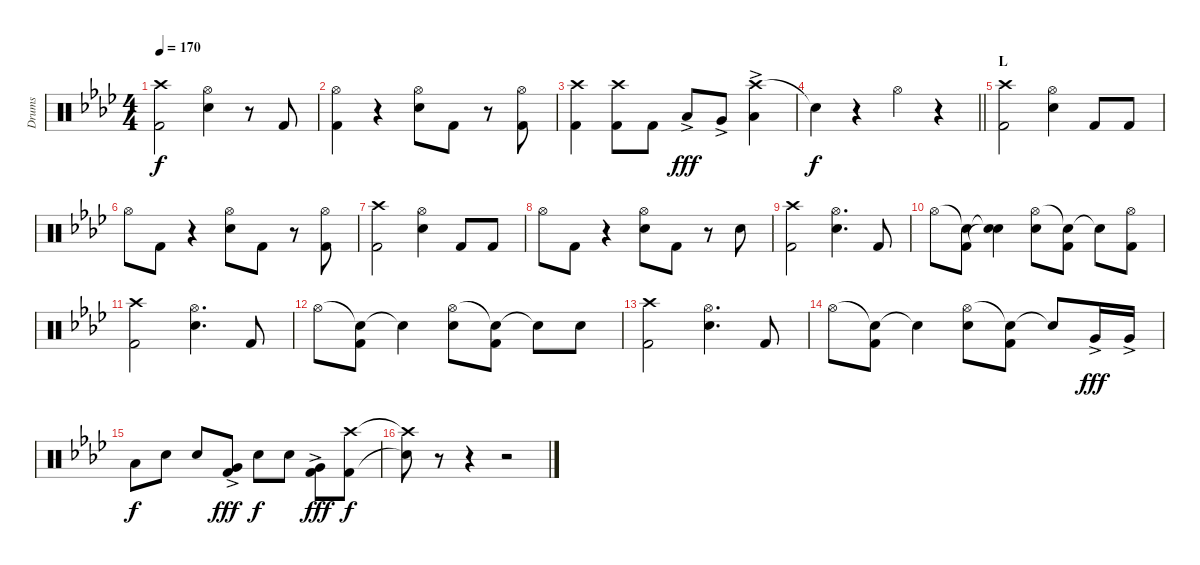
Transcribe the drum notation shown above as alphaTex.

\track ("Drums" "Drums") {instrument percussion}
\staff {score}
\articulation defaults
\ts (4 4)
\tempo 170
\clef neutral
\ks ab
("Crash high (hit)" "Kick (hit) 2").2{dy f} ("Hi-Hat (open)" "Snare (hit) 2").4 r.8 "Kick (hit) 2".8 |
("Hi-Hat (open)" "Kick (hit) 2").4 r.4 ("Hi-Hat (open)" "Snare (hit) 2").8 "Kick (hit) 2".8 r.8 ("Hi-Hat (open)" "Kick (hit) 2").8 |
("Crash high (hit)" "Kick (hit) 2").4 ("Crash high (hit)" "Kick (hit) 2").8 "Kick (hit) 2".8 "Low Tom (hit)"{ac}.8{dy fff} "Very Low Tom (hit)"{ac}.8 ("Crash high (hit)" "Low Floor Tom (hit)"{ac}).4 |
\barLineRight lightlight "Snare (hit)"{t}.4{dy f}
r.4 "Hi-Hat (open)".4 r.4 |
\section ("" "L")
("Crash high (hit)" "Kick (hit) 2").2 ("Hi-Hat (open)" "Snare (hit) 2").4 "Kick (hit) 2".8 "Kick (hit) 2".8 |
"Hi-Hat (open)".8 "Kick (hit) 2".8 r.4 ("Hi-Hat (open)" "Snare (hit) 2").8 "Kick (hit) 2".8 r.8 ("Hi-Hat (open)" "Kick (hit) 2").8 |
("Crash high (hit)" "Kick (hit) 2").2 ("Hi-Hat (open)" "Snare (hit) 2").4 "Kick (hit) 2".8 "Kick (hit) 2".8 |
"Hi-Hat (open)".8 "Kick (hit) 2".8 r.4 ("Hi-Hat (open)" "Snare (hit) 2").8 "Kick (hit) 2".8 r.8 "Snare (hit) 2".8 |
("Crash high (hit)" "Kick (hit) 2").2 ("Hi-Hat (open)" "Snare (hit) 2").4{d} "Kick (hit) 2".8 |
"Hi-Hat (open)".8 ("Snare (hit)"{t} "Kick (hit) 2").8 ("Snare (hit)"{t} "Snare (hit)"{t}).4 ("Hi-Hat (open)" "Snare (hit) 2").8 ("Snare (hit)"{t} "Kick (hit) 2").8 "Snare (hit)"{t}.8 ("Hi-Hat (open)" "Kick (hit) 2").8 |
("Crash high (hit)" "Kick (hit) 2").2 ("Hi-Hat (open)" "Snare (hit) 2").4{d} "Kick (hit) 2".8 |
"Hi-Hat (open)".8 ("Snare (hit)"{t} "Kick (hit) 2").8 "Snare (hit)"{t}.4 ("Hi-Hat (open)" "Snare (hit) 2").8 ("Snare (hit)"{t} "Kick (hit) 2").8 "Snare (hit)"{t}.8 "Snare (hit) 2".8 |
("Crash high (hit)" "Kick (hit) 2").2 ("Hi-Hat (open)" "Snare (hit) 2").4{d} "Kick (hit) 2".8 |
"Hi-Hat (open)".8 ("Snare (hit)"{t} "Kick (hit) 2").8 "Snare (hit)"{t}.4 ("Hi-Hat (open)" "Snare (hit) 2").8 ("Snare (hit)"{t} "Kick (hit) 2").8 "Snare (hit)"{t}.8 "Very Low Tom (hit)"{ac}.16{dy fff} "Very Low Tom (hit)"{ac}.16 |
"Low Tom (hit)".8{dy f} "Snare (hit) 2".8 "Snare (hit) 2".8 ("Very Low Tom (hit)"{ac} "Kick (hit) 2").8{dy fff} "Snare (hit) 2".8{dy f} "Snare (hit) 2".8 ("Very Low Tom (hit)"{ac} "Kick (hit) 2").8{dy fff} ("Crash high (hit)" "Kick (hit) 2").8{dy f} |
("Crash high (hit)"{t} "Snare (hit)"{t}).8 r.8 r.4 r.2
